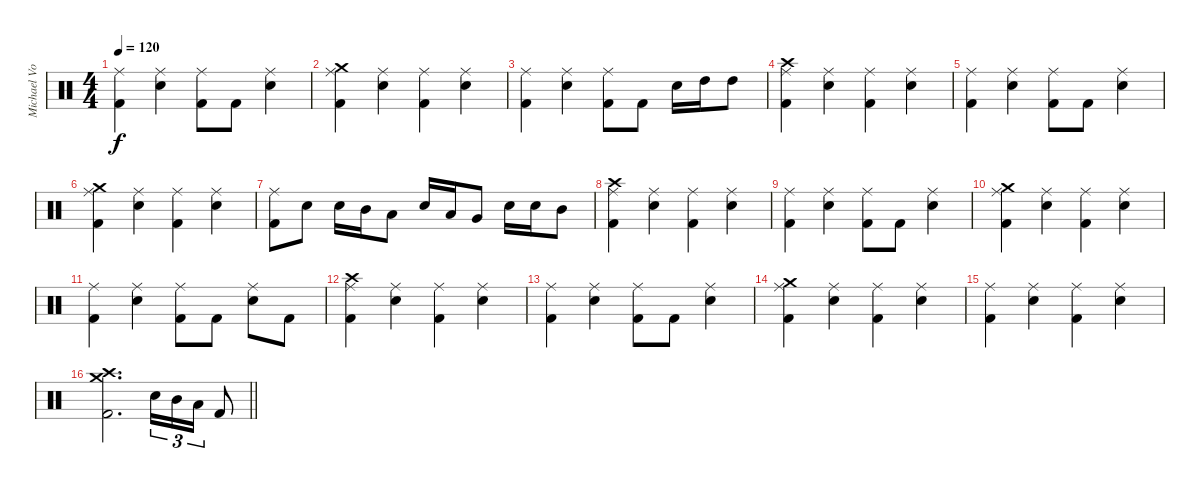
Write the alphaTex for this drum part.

\track ("Michael Von Knorring" "Michael Vo") {instrument percussion}
\staff {score}
\articulation defaults
\ts (4 4)
\tempo 120
\clef neutral
\ks c
("Ride (middle)" "Kick (hit) 2").4{dy f} ("Ride (middle)" "Snare (hit) 2").4 ("Ride (middle)" "Kick (hit) 2").8 "Kick (hit) 2".8 ("Ride (middle)" "Snare (hit) 2").4 |
("Crash medium (hit)" "Ride (middle)" "Kick (hit) 2").4 ("Ride (middle)" "Snare (hit) 2").4 ("Ride (middle)" "Kick (hit) 2").4 ("Ride (middle)" "Snare (hit) 2").4 |
("Ride (middle)" "Kick (hit) 2").4 ("Ride (middle)" "Snare (hit) 2").4 ("Ride (middle)" "Kick (hit) 2").8 "Kick (hit) 2".8 "Snare (hit) 2".16 "High Tom (hit)".16 "High Tom (hit)".8 |
("Crash high (hit)" "Ride (middle)" "Kick (hit) 2").4 ("Ride (middle)" "Snare (hit) 2").4 ("Ride (middle)" "Kick (hit) 2").4 ("Ride (middle)" "Snare (hit) 2").4 |
("Ride (middle)" "Kick (hit) 2").4 ("Ride (middle)" "Snare (hit) 2").4 ("Ride (middle)" "Kick (hit) 2").8 "Kick (hit) 2".8 ("Ride (middle)" "Snare (hit) 2").4 |
("Crash medium (hit)" "Ride (middle)" "Kick (hit) 2").4 ("Ride (middle)" "Snare (hit) 2").4 ("Ride (middle)" "Kick (hit) 2").4 ("Ride (middle)" "Snare (hit) 2").4 |
("Ride (middle)" "Kick (hit) 2").8 "Snare (hit) 2".8 "Snare (hit) 2".16 "Mid Tom (hit)".16 "Low Tom (hit)".8 "Snare (hit) 2".16 "Low Tom (hit)".16 "Very Low Tom (hit)".8 "Snare (hit) 2".16 "Snare (hit) 2".16 "Mid Tom (hit)".8 |
("Crash high (hit)" "Ride (middle)" "Kick (hit) 2").4 ("Ride (middle)" "Snare (hit) 2").4 ("Ride (middle)" "Kick (hit) 2").4 ("Ride (middle)" "Snare (hit) 2").4 |
("Ride (middle)" "Kick (hit) 2").4 ("Ride (middle)" "Snare (hit) 2").4 ("Ride (middle)" "Kick (hit) 2").8 "Kick (hit) 2".8 ("Ride (middle)" "Snare (hit) 2").4 |
("Crash medium (hit)" "Ride (middle)" "Kick (hit) 2").4 ("Ride (middle)" "Snare (hit) 2").4 ("Ride (middle)" "Kick (hit) 2").4 ("Ride (middle)" "Snare (hit) 2").4 |
("Ride (middle)" "Kick (hit) 2").4 ("Ride (middle)" "Snare (hit) 2").4 ("Ride (middle)" "Kick (hit) 2").8 "Kick (hit) 2".8 ("Ride (middle)" "Snare (hit) 2").8 "Kick (hit) 2".8 |
("Crash high (hit)" "Ride (middle)" "Kick (hit) 2").4 ("Ride (middle)" "Snare (hit) 2").4 ("Ride (middle)" "Kick (hit) 2").4 ("Ride (middle)" "Snare (hit) 2").4 |
("Ride (middle)" "Kick (hit) 2").4 ("Ride (middle)" "Snare (hit) 2").4 ("Ride (middle)" "Kick (hit) 2").8 "Kick (hit) 2".8 ("Ride (middle)" "Snare (hit) 2").4 |
("Crash medium (hit)" "Ride (middle)" "Kick (hit) 2").4 ("Ride (middle)" "Snare (hit) 2").4 ("Ride (middle)" "Kick (hit) 2").4 ("Ride (middle)" "Snare (hit) 2").4 |
("Ride (middle)" "Kick (hit) 2").4 ("Ride (middle)" "Snare (hit) 2").4 ("Ride (middle)" "Kick (hit) 2").4 ("Ride (middle)" "Snare (hit) 2").4 |
\barLineRight lightlight
("Crash medium (hit)" "Crash high (hit)" "Kick (hit) 2").2{d} "Snare (hit) 2".16{tu (3 2)} "Mid Tom (hit)".16{tu (3 2)} "Low Tom (hit)".16{tu (3 2)} "Kick (hit) 2".8
